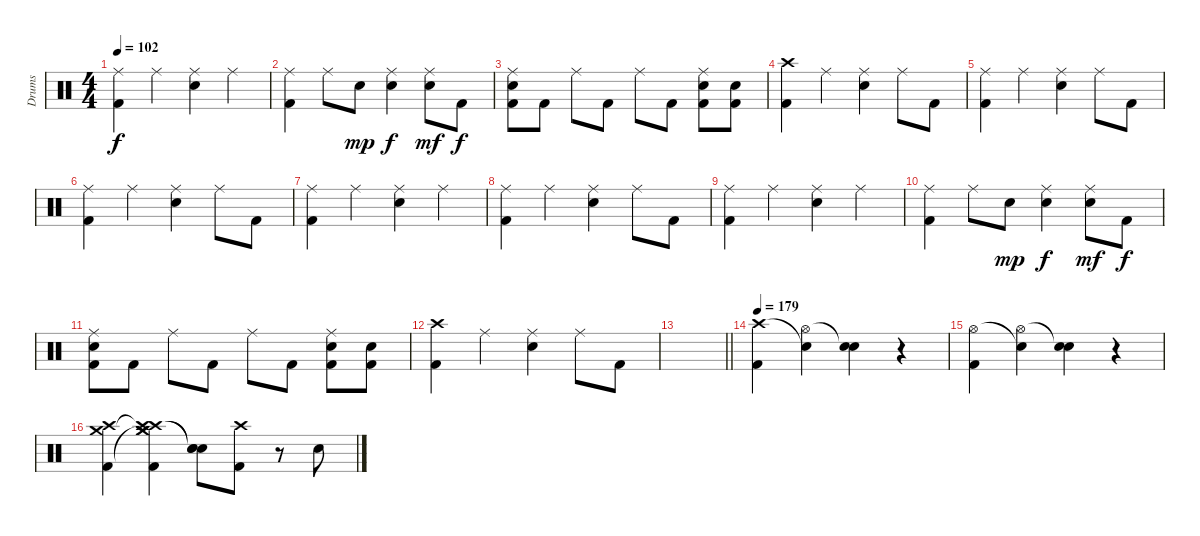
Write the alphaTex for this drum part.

\track ("Drums" "Drums") {instrument percussion}
\staff {score}
\articulation defaults
\ts (4 4)
\tempo 102
\clef neutral
\ks c
("Ride (middle)" "Kick (hit) 2").4{dy f} "Ride (middle)".4 ("Ride (middle)" "Electric Snare (hit)").4 "Ride (middle)".4 |
("Ride (middle)" "Kick (hit) 2").4 "Ride (middle)".8 "Electric Snare (hit)".8{dy mp} ("Ride (middle)" "Electric Snare (hit)").4{dy f} ("Ride (middle)" "Electric Snare (hit)").8{dy mf} "Kick (hit) 2".8{dy f} |
("Ride (middle)" "Electric Snare (hit)" "Kick (hit) 2").8 "Kick (hit) 2".8 "Ride (middle)".8 "Kick (hit) 2".8 "Ride (middle)".8 "Kick (hit) 2".8 ("Ride (middle)" "Electric Snare (hit)" "Kick (hit) 2").8 ("Electric Snare (hit)" "Kick (hit) 2").8 |
("Crash high (hit)" "Kick (hit) 2").4 "Ride (middle)".4 ("Ride (middle)" "Electric Snare (hit)").4 "Ride (middle)".8 "Kick (hit) 2".8 |
("Ride (middle)" "Kick (hit) 2").4 "Ride (middle)".4 ("Ride (middle)" "Electric Snare (hit)").4 "Ride (middle)".8 "Kick (hit) 2".8 |
("Ride (middle)" "Kick (hit) 2").4 "Ride (middle)".4 ("Ride (middle)" "Electric Snare (hit)").4 "Ride (middle)".8 "Kick (hit) 2".8 |
("Ride (middle)" "Kick (hit) 2").4 "Ride (middle)".4 ("Ride (middle)" "Electric Snare (hit)").4 "Ride (middle)".4 |
("Ride (middle)" "Kick (hit) 2").4 "Ride (middle)".4 ("Ride (middle)" "Electric Snare (hit)").4 "Ride (middle)".8 "Kick (hit) 2".8 |
("Ride (middle)" "Kick (hit) 2").4 "Ride (middle)".4 ("Ride (middle)" "Electric Snare (hit)").4 "Ride (middle)".4 |
("Ride (middle)" "Kick (hit) 2").4 "Ride (middle)".8 "Electric Snare (hit)".8{dy mp} ("Ride (middle)" "Electric Snare (hit)").4{dy f} ("Ride (middle)" "Electric Snare (hit)").8{dy mf} "Kick (hit) 2".8{dy f} |
("Ride (middle)" "Electric Snare (hit)" "Kick (hit) 2").8 "Kick (hit) 2".8 "Ride (middle)".8 "Kick (hit) 2".8 "Ride (middle)".8 "Kick (hit) 2".8 ("Ride (middle)" "Electric Snare (hit)" "Kick (hit) 2").8 ("Electric Snare (hit)" "Kick (hit) 2").8 |
("Crash high (hit)" "Kick (hit) 2").4 "Ride (middle)".4 ("Ride (middle)" "Electric Snare (hit)").4 "Ride (middle)".8 "Kick (hit) 2".8 |
\barLineRight lightlight
|
\tempo 179
("Crash high (hit)" "Kick (hit) 2").4 ("Snare (hit)"{t} "Hi-Hat (open)").4 ("Electric Snare (hit)" "Snare (hit)"{t}).4 r.4 |
("Hi-Hat (open)" "Kick (hit) 2").4 ("Snare (hit)"{t} "Hi-Hat (open)").4 ("Electric Snare (hit)" "Snare (hit)"{t}).4 r.4 |
("Crash high (hit)" "Crash medium (hit)" "Kick (hit) 2").4 ("Crash high (hit)" "Crash high (hit)"{t} "Crash medium (hit)"{t} "Crash medium (hit)" "Kick (hit) 2").4 ("Snare (hit)"{t} "Snare (hit)"{t} "Electric Snare (hit)").8 ("Crash high (hit)" "Kick (hit) 2").8 r.8 "Electric Snare (hit)".8
